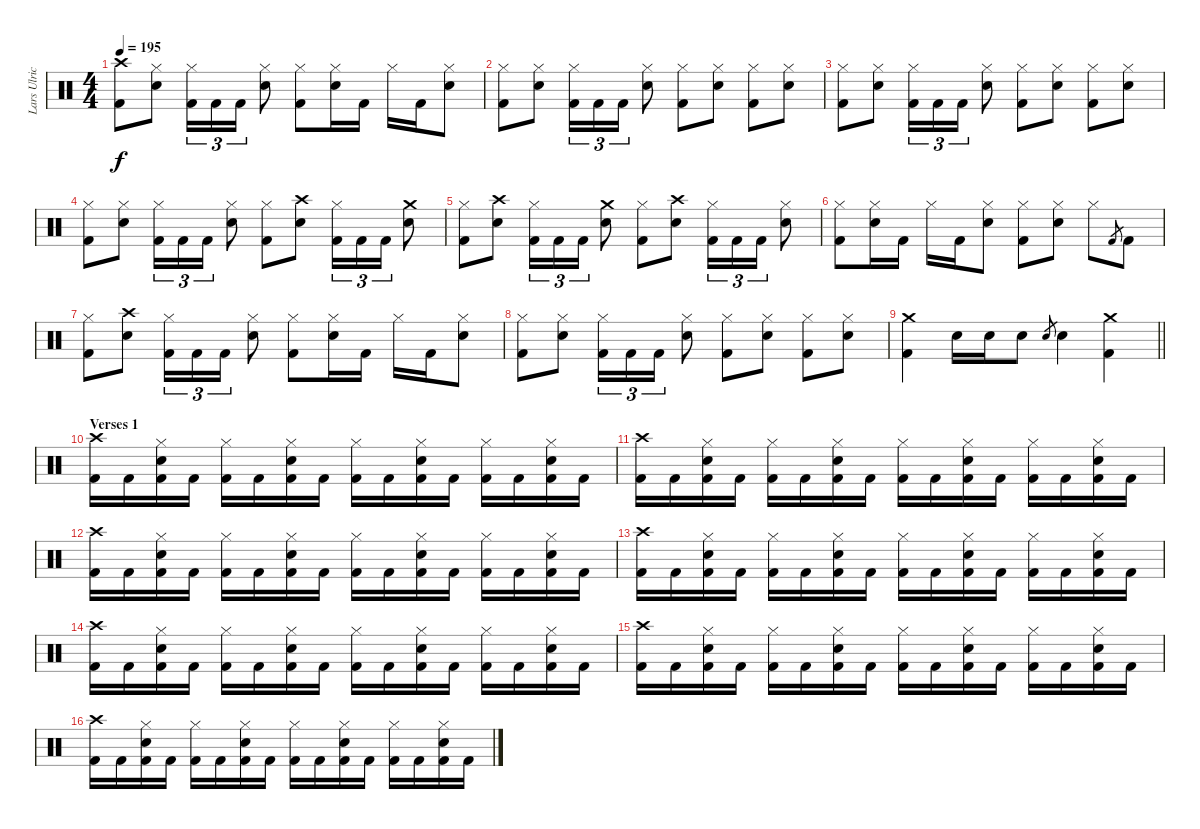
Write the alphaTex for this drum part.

\track ("Lars Ulrich" "Lars Ulric") {instrument percussion}
\staff {score}
\articulation defaults
\ts (4 4)
\tempo 195
\clef neutral
\ks c
("Crash high (hit)" "Kick (hit) 2").8{dy f} ("Hi-Hat (closed)" "Electric Snare (hit)").8 ("Hi-Hat (closed)" "Kick (hit) 2").16{tu (3 2)} "Kick (hit) 2".16{tu (3 2)} "Kick (hit) 2".16{tu (3 2)} ("Hi-Hat (closed)" "Electric Snare (hit)").8 ("Hi-Hat (closed)" "Kick (hit) 2").8 ("Hi-Hat (closed)" "Electric Snare (hit)").16 "Kick (hit) 2".16 "Hi-Hat (closed)".16 "Kick (hit) 2".16 ("Hi-Hat (closed)" "Electric Snare (hit)").8 |
("Hi-Hat (closed)" "Kick (hit) 2").8 ("Hi-Hat (closed)" "Electric Snare (hit)").8 ("Hi-Hat (closed)" "Kick (hit) 2").16{tu (3 2)} "Kick (hit) 2".16{tu (3 2)} "Kick (hit) 2".16{tu (3 2)} ("Hi-Hat (closed)" "Electric Snare (hit)").8 ("Hi-Hat (closed)" "Kick (hit) 2").8 ("Hi-Hat (closed)" "Electric Snare (hit)").8 ("Hi-Hat (closed)" "Kick (hit) 2").8 ("Hi-Hat (closed)" "Electric Snare (hit)").8 |
("Hi-Hat (closed)" "Kick (hit) 2").8 ("Hi-Hat (closed)" "Electric Snare (hit)").8 ("Hi-Hat (closed)" "Kick (hit) 2").16{tu (3 2)} "Kick (hit) 2".16{tu (3 2)} "Kick (hit) 2".16{tu (3 2)} ("Hi-Hat (closed)" "Electric Snare (hit)").8 ("Hi-Hat (closed)" "Kick (hit) 2").8 ("Hi-Hat (closed)" "Electric Snare (hit)").8 ("Hi-Hat (closed)" "Kick (hit) 2").8 ("Hi-Hat (closed)" "Electric Snare (hit)").8 |
("Hi-Hat (closed)" "Kick (hit) 2").8 ("Hi-Hat (closed)" "Electric Snare (hit)").8 ("Hi-Hat (closed)" "Kick (hit) 2").16{tu (3 2)} "Kick (hit) 2".16{tu (3 2)} "Kick (hit) 2".16{tu (3 2)} ("Hi-Hat (closed)" "Electric Snare (hit)").8 ("Hi-Hat (closed)" "Kick (hit) 2").8 ("Crash high (hit)" "Electric Snare (hit)").8 ("Hi-Hat (closed)" "Kick (hit) 2").16{tu (3 2)} "Kick (hit) 2".16{tu (3 2)} "Kick (hit) 2".16{tu (3 2)} ("Crash medium (hit)" "Electric Snare (hit)").8 |
("Hi-Hat (closed)" "Kick (hit) 2").8 ("Crash high (hit)" "Electric Snare (hit)").8 ("Hi-Hat (closed)" "Kick (hit) 2").16{tu (3 2)} "Kick (hit) 2".16{tu (3 2)} "Kick (hit) 2".16{tu (3 2)} ("Crash medium (hit)" "Electric Snare (hit)").8 ("Hi-Hat (closed)" "Kick (hit) 2").8 ("Crash high (hit)" "Electric Snare (hit)").8 ("Hi-Hat (closed)" "Kick (hit) 2").16{tu (3 2)} "Kick (hit) 2".16{tu (3 2)} "Kick (hit) 2".16{tu (3 2)} ("Hi-Hat (closed)" "Electric Snare (hit)").8 |
("Hi-Hat (closed)" "Kick (hit) 2").8 ("Hi-Hat (closed)" "Electric Snare (hit)").16 "Kick (hit) 2".16 "Hi-Hat (closed)".16 "Kick (hit) 2".16 ("Hi-Hat (closed)" "Electric Snare (hit)").8 ("Hi-Hat (closed)" "Kick (hit) 2").8 ("Hi-Hat (closed)" "Electric Snare (hit)").8 "Hi-Hat (closed)".8 "Kick (hit) 2".8{gr} "Kick (hit) 2".8 |
("Hi-Hat (closed)" "Kick (hit) 2").8 ("Crash high (hit)" "Electric Snare (hit)").8 ("Hi-Hat (closed)" "Kick (hit) 2").16{tu (3 2)} "Kick (hit) 2".16{tu (3 2)} "Kick (hit) 2".16{tu (3 2)} ("Hi-Hat (closed)" "Electric Snare (hit)").8 ("Hi-Hat (closed)" "Kick (hit) 2").8 ("Hi-Hat (closed)" "Electric Snare (hit)").16 "Kick (hit) 2".16 "Hi-Hat (closed)".16 "Kick (hit) 2".16 ("Hi-Hat (closed)" "Electric Snare (hit)").8 |
("Hi-Hat (closed)" "Kick (hit) 2").8 ("Hi-Hat (closed)" "Electric Snare (hit)").8 ("Hi-Hat (closed)" "Kick (hit) 2").16{tu (3 2)} "Kick (hit) 2".16{tu (3 2)} "Kick (hit) 2".16{tu (3 2)} ("Hi-Hat (closed)" "Electric Snare (hit)").8 ("Hi-Hat (closed)" "Kick (hit) 2").8 ("Hi-Hat (closed)" "Electric Snare (hit)").8 ("Hi-Hat (closed)" "Kick (hit) 2").8 ("Hi-Hat (closed)" "Electric Snare (hit)").8 |
\barLineRight lightlight
("Crash medium (hit)" "Kick (hit) 2").4 "Electric Snare (hit)".16 "Electric Snare (hit)".16 "Electric Snare (hit)".8 "Electric Snare (hit)".8{gr} "Electric Snare (hit)".4 ("Crash medium (hit)" "Kick (hit) 2").4 |
\section ("" "Verses 1")
("Crash high (hit)" "Kick (hit) 2").16 "Kick (hit) 2".16 ("Hi-Hat (closed)" "Electric Snare (hit)" "Kick (hit) 2").16 "Kick (hit) 2".16 ("Hi-Hat (closed)" "Kick (hit) 2").16 "Kick (hit) 2".16 ("Hi-Hat (closed)" "Electric Snare (hit)" "Kick (hit) 2").16 "Kick (hit) 2".16 ("Hi-Hat (closed)" "Kick (hit) 2").16 "Kick (hit) 2".16 ("Hi-Hat (closed)" "Electric Snare (hit)" "Kick (hit) 2").16 "Kick (hit) 2".16 ("Hi-Hat (closed)" "Kick (hit) 2").16 "Kick (hit) 2".16 ("Hi-Hat (closed)" "Electric Snare (hit)" "Kick (hit) 2").16 "Kick (hit) 2".16 |
("Crash high (hit)" "Kick (hit) 2").16 "Kick (hit) 2".16 ("Hi-Hat (closed)" "Electric Snare (hit)" "Kick (hit) 2").16 "Kick (hit) 2".16 ("Hi-Hat (closed)" "Kick (hit) 2").16 "Kick (hit) 2".16 ("Hi-Hat (closed)" "Electric Snare (hit)" "Kick (hit) 2").16 "Kick (hit) 2".16 ("Hi-Hat (closed)" "Kick (hit) 2").16 "Kick (hit) 2".16 ("Hi-Hat (closed)" "Electric Snare (hit)" "Kick (hit) 2").16 "Kick (hit) 2".16 ("Hi-Hat (closed)" "Kick (hit) 2").16 "Kick (hit) 2".16 ("Hi-Hat (closed)" "Electric Snare (hit)" "Kick (hit) 2").16 "Kick (hit) 2".16 |
("Crash high (hit)" "Kick (hit) 2").16 "Kick (hit) 2".16 ("Hi-Hat (closed)" "Electric Snare (hit)" "Kick (hit) 2").16 "Kick (hit) 2".16 ("Hi-Hat (closed)" "Kick (hit) 2").16 "Kick (hit) 2".16 ("Hi-Hat (closed)" "Electric Snare (hit)" "Kick (hit) 2").16 "Kick (hit) 2".16 ("Hi-Hat (closed)" "Kick (hit) 2").16 "Kick (hit) 2".16 ("Hi-Hat (closed)" "Electric Snare (hit)" "Kick (hit) 2").16 "Kick (hit) 2".16 ("Hi-Hat (closed)" "Kick (hit) 2").16 "Kick (hit) 2".16 ("Hi-Hat (closed)" "Electric Snare (hit)" "Kick (hit) 2").16 "Kick (hit) 2".16 |
("Crash high (hit)" "Kick (hit) 2").16 "Kick (hit) 2".16 ("Hi-Hat (closed)" "Electric Snare (hit)" "Kick (hit) 2").16 "Kick (hit) 2".16 ("Hi-Hat (closed)" "Kick (hit) 2").16 "Kick (hit) 2".16 ("Hi-Hat (closed)" "Electric Snare (hit)" "Kick (hit) 2").16 "Kick (hit) 2".16 ("Hi-Hat (closed)" "Kick (hit) 2").16 "Kick (hit) 2".16 ("Hi-Hat (closed)" "Electric Snare (hit)" "Kick (hit) 2").16 "Kick (hit) 2".16 ("Hi-Hat (closed)" "Kick (hit) 2").16 "Kick (hit) 2".16 ("Hi-Hat (closed)" "Electric Snare (hit)" "Kick (hit) 2").16 "Kick (hit) 2".16 |
("Crash high (hit)" "Kick (hit) 2").16 "Kick (hit) 2".16 ("Hi-Hat (closed)" "Electric Snare (hit)" "Kick (hit) 2").16 "Kick (hit) 2".16 ("Hi-Hat (closed)" "Kick (hit) 2").16 "Kick (hit) 2".16 ("Hi-Hat (closed)" "Electric Snare (hit)" "Kick (hit) 2").16 "Kick (hit) 2".16 ("Hi-Hat (closed)" "Kick (hit) 2").16 "Kick (hit) 2".16 ("Hi-Hat (closed)" "Electric Snare (hit)" "Kick (hit) 2").16 "Kick (hit) 2".16 ("Hi-Hat (closed)" "Kick (hit) 2").16 "Kick (hit) 2".16 ("Hi-Hat (closed)" "Electric Snare (hit)" "Kick (hit) 2").16 "Kick (hit) 2".16 |
("Crash high (hit)" "Kick (hit) 2").16 "Kick (hit) 2".16 ("Hi-Hat (closed)" "Electric Snare (hit)" "Kick (hit) 2").16 "Kick (hit) 2".16 ("Hi-Hat (closed)" "Kick (hit) 2").16 "Kick (hit) 2".16 ("Hi-Hat (closed)" "Electric Snare (hit)" "Kick (hit) 2").16 "Kick (hit) 2".16 ("Hi-Hat (closed)" "Kick (hit) 2").16 "Kick (hit) 2".16 ("Hi-Hat (closed)" "Electric Snare (hit)" "Kick (hit) 2").16 "Kick (hit) 2".16 ("Hi-Hat (closed)" "Kick (hit) 2").16 "Kick (hit) 2".16 ("Hi-Hat (closed)" "Electric Snare (hit)" "Kick (hit) 2").16 "Kick (hit) 2".16 |
("Crash high (hit)" "Kick (hit) 2").16 "Kick (hit) 2".16 ("Hi-Hat (closed)" "Electric Snare (hit)" "Kick (hit) 2").16 "Kick (hit) 2".16 ("Hi-Hat (closed)" "Kick (hit) 2").16 "Kick (hit) 2".16 ("Hi-Hat (closed)" "Electric Snare (hit)" "Kick (hit) 2").16 "Kick (hit) 2".16 ("Hi-Hat (closed)" "Kick (hit) 2").16 "Kick (hit) 2".16 ("Hi-Hat (closed)" "Electric Snare (hit)" "Kick (hit) 2").16 "Kick (hit) 2".16 ("Hi-Hat (closed)" "Kick (hit) 2").16 "Kick (hit) 2".16 ("Hi-Hat (closed)" "Electric Snare (hit)" "Kick (hit) 2").16 "Kick (hit) 2".16
